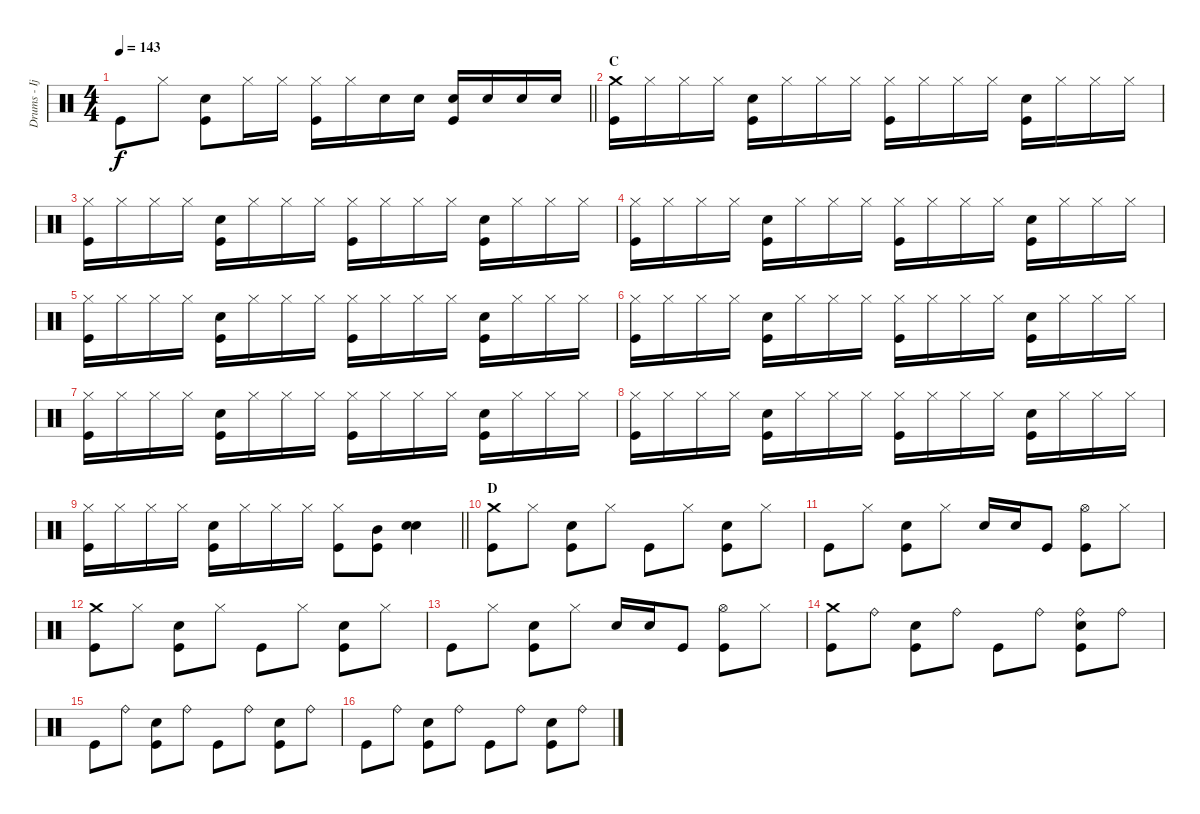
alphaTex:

\track ("Drums - Ijichi" "Drums - Ij") {instrument percussion}
\staff {score}
\articulation defaults
\ts (4 4)
\tempo 143
\clef neutral
\barLineRight lightlight
\ks c "Kick (hit)".8{dy f} "Hi-Hat (closed)".8
("Electric Snare (hit)" "Kick (hit)").8 "Hi-Hat (closed)".16 "Hi-Hat (closed)".16 ("Hi-Hat (closed)" "Kick (hit)").16 "Hi-Hat (closed)".16 "Electric Snare (hit)".16 "Electric Snare (hit)".16 ("Electric Snare (hit)" "Kick (hit)").16 "Electric Snare (hit)".16 "Electric Snare (hit)".16 "Electric Snare (hit)".16 |
\section ("" "C")
("Crash medium (hit)" "Kick (hit)").16 "Hi-Hat (closed)".16 "Hi-Hat (closed)".16 "Hi-Hat (closed)".16 ("Electric Snare (hit)" "Kick (hit)").16 "Hi-Hat (closed)".16 "Hi-Hat (closed)".16 "Hi-Hat (closed)".16 ("Hi-Hat (closed)" "Kick (hit)").16 "Hi-Hat (closed)".16 "Hi-Hat (closed)".16 "Hi-Hat (closed)".16 ("Electric Snare (hit)" "Kick (hit)").16 "Hi-Hat (closed)".16 "Hi-Hat (closed)".16 "Hi-Hat (closed)".16 |
("Hi-Hat (closed)" "Kick (hit)").16 "Hi-Hat (closed)".16 "Hi-Hat (closed)".16 "Hi-Hat (closed)".16 ("Electric Snare (hit)" "Kick (hit)").16 "Hi-Hat (closed)".16 "Hi-Hat (closed)".16 "Hi-Hat (closed)".16 ("Hi-Hat (closed)" "Kick (hit)").16 "Hi-Hat (closed)".16 "Hi-Hat (closed)".16 "Hi-Hat (closed)".16 ("Electric Snare (hit)" "Kick (hit)").16 "Hi-Hat (closed)".16 "Hi-Hat (closed)".16 "Hi-Hat (closed)".16 |
("Hi-Hat (closed)" "Kick (hit)").16 "Hi-Hat (closed)".16 "Hi-Hat (closed)".16 "Hi-Hat (closed)".16 ("Electric Snare (hit)" "Kick (hit)").16 "Hi-Hat (closed)".16 "Hi-Hat (closed)".16 "Hi-Hat (closed)".16 ("Hi-Hat (closed)" "Kick (hit)").16 "Hi-Hat (closed)".16 "Hi-Hat (closed)".16 "Hi-Hat (closed)".16 ("Electric Snare (hit)" "Kick (hit)").16 "Hi-Hat (closed)".16 "Hi-Hat (closed)".16 "Hi-Hat (closed)".16 |
("Hi-Hat (closed)" "Kick (hit)").16 "Hi-Hat (closed)".16 "Hi-Hat (closed)".16 "Hi-Hat (closed)".16 ("Electric Snare (hit)" "Kick (hit)").16 "Hi-Hat (closed)".16 "Hi-Hat (closed)".16 "Hi-Hat (closed)".16 ("Hi-Hat (closed)" "Kick (hit)").16 "Hi-Hat (closed)".16 "Hi-Hat (closed)".16 "Hi-Hat (closed)".16 ("Electric Snare (hit)" "Kick (hit)").16 "Hi-Hat (closed)".16 "Hi-Hat (closed)".16 "Hi-Hat (closed)".16 |
("Hi-Hat (closed)" "Kick (hit)").16 "Hi-Hat (closed)".16 "Hi-Hat (closed)".16 "Hi-Hat (closed)".16 ("Electric Snare (hit)" "Kick (hit)").16 "Hi-Hat (closed)".16 "Hi-Hat (closed)".16 "Hi-Hat (closed)".16 ("Hi-Hat (closed)" "Kick (hit)").16 "Hi-Hat (closed)".16 "Hi-Hat (closed)".16 "Hi-Hat (closed)".16 ("Electric Snare (hit)" "Kick (hit)").16 "Hi-Hat (closed)".16 "Hi-Hat (closed)".16 "Hi-Hat (closed)".16 |
("Hi-Hat (closed)" "Kick (hit)").16 "Hi-Hat (closed)".16 "Hi-Hat (closed)".16 "Hi-Hat (closed)".16 ("Electric Snare (hit)" "Kick (hit)").16 "Hi-Hat (closed)".16 "Hi-Hat (closed)".16 "Hi-Hat (closed)".16 ("Hi-Hat (closed)" "Kick (hit)").16 "Hi-Hat (closed)".16 "Hi-Hat (closed)".16 "Hi-Hat (closed)".16 ("Electric Snare (hit)" "Kick (hit)").16 "Hi-Hat (closed)".16 "Hi-Hat (closed)".16 "Hi-Hat (closed)".16 |
("Hi-Hat (closed)" "Kick (hit)").16 "Hi-Hat (closed)".16 "Hi-Hat (closed)".16 "Hi-Hat (closed)".16 ("Electric Snare (hit)" "Kick (hit)").16 "Hi-Hat (closed)".16 "Hi-Hat (closed)".16 "Hi-Hat (closed)".16 ("Hi-Hat (closed)" "Kick (hit)").16 "Hi-Hat (closed)".16 "Hi-Hat (closed)".16 "Hi-Hat (closed)".16 ("Electric Snare (hit)" "Kick (hit)").16 "Hi-Hat (closed)".16 "Hi-Hat (closed)".16 "Hi-Hat (closed)".16 |
\barLineRight lightlight
("Hi-Hat (closed)" "Kick (hit)").16 "Hi-Hat (closed)".16 "Hi-Hat (closed)".16 "Hi-Hat (closed)".16 ("Electric Snare (hit)" "Kick (hit)").16 "Hi-Hat (closed)".16 "Hi-Hat (closed)".16 "Hi-Hat (closed)".16 ("Hi-Hat (closed)" "Kick (hit)").8 ("Mid Tom (hit)" "Kick (hit)").8 ("Electric Snare (hit)" "Electric Snare (hit)").4 |
\section ("" "D")
("Crash medium (hit)" "Kick (hit)").8 "Hi-Hat (closed)".8 ("Electric Snare (hit)" "Kick (hit)").8 "Hi-Hat (closed)".8 "Kick (hit)".8 "Hi-Hat (closed)".8 ("Electric Snare (hit)" "Kick (hit)").8 "Hi-Hat (closed)".8 |
"Kick (hit)".8 "Hi-Hat (closed)".8 ("Electric Snare (hit)" "Kick (hit)").8 "Hi-Hat (closed)".8 "Electric Snare (hit)".16 "Electric Snare (hit)".16 "Kick (hit)".8 ("Hi-Hat (open)" "Kick (hit)").8 "Hi-Hat (closed)".8 |
("Crash medium (hit)" "Kick (hit)").8 "Hi-Hat (closed)".8 ("Electric Snare (hit)" "Kick (hit)").8 "Hi-Hat (closed)".8 "Kick (hit)".8 "Hi-Hat (closed)".8 ("Electric Snare (hit)" "Kick (hit)").8 "Hi-Hat (closed)".8 |
"Kick (hit)".8 "Hi-Hat (closed)".8 ("Electric Snare (hit)" "Kick (hit)").8 "Hi-Hat (closed)".8 "Electric Snare (hit)".16 "Electric Snare (hit)".16 "Kick (hit)".8 ("Hi-Hat (open)" "Kick (hit)").8 "Hi-Hat (closed)".8 |
("Crash medium (hit)" "Kick (hit)").8 "Ride (bell)".8 ("Electric Snare (hit)" "Kick (hit)").8 "Ride (bell)".8 "Kick (hit)".8 "Ride (bell)".8 ("Ride (bell)" "Electric Snare (hit)" "Kick (hit)").8 "Ride (bell)".8 |
"Kick (hit)".8 "Ride (bell)".8 ("Electric Snare (hit)" "Kick (hit)").8 "Ride (bell)".8 "Kick (hit)".8 "Ride (bell)".8 ("Electric Snare (hit)" "Kick (hit)").8 "Ride (bell)".8 |
"Kick (hit)".8 "Ride (bell)".8 ("Electric Snare (hit)" "Kick (hit)").8 "Ride (bell)".8 "Kick (hit)".8 "Ride (bell)".8 ("Electric Snare (hit)" "Kick (hit)").8 "Ride (bell)".8
